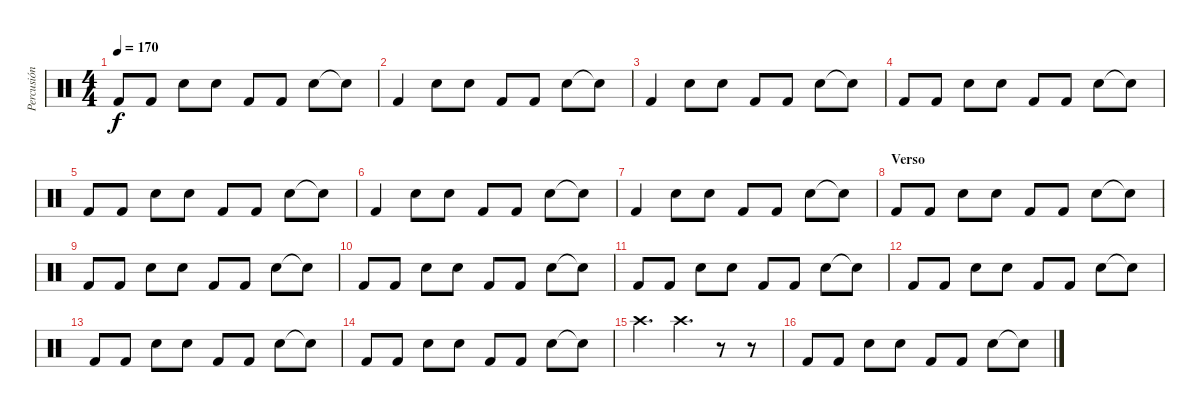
\track ("Percusión" "Percusión") {instrument percussion}
\staff {score}
\articulation defaults
\ts (4 4)
\tempo 170
\clef neutral
\ks c "Kick (hit) 2".8{dy f} "Kick (hit) 2".8 "Electric Snare (hit)".8 "Electric Snare (hit)".8 "Kick (hit) 2".8 "Kick (hit) 2".8 "Electric Snare (hit)".8 "Snare (hit)"{t}.8
|
"Kick (hit) 2".4 "Electric Snare (hit)".8 "Electric Snare (hit)".8 "Kick (hit) 2".8 "Kick (hit) 2".8 "Electric Snare (hit)".8 "Electric Snare (hit)"{t}.8 |
"Kick (hit) 2".4 "Electric Snare (hit)".8 "Electric Snare (hit)".8 "Kick (hit) 2".8 "Kick (hit) 2".8 "Electric Snare (hit)".8 "Electric Snare (hit)"{t}.8 |
"Kick (hit) 2".8 "Kick (hit) 2".8 "Electric Snare (hit)".8 "Electric Snare (hit)".8 "Kick (hit) 2".8 "Kick (hit) 2".8 "Electric Snare (hit)".8 "Snare (hit)"{t}.8 |
"Kick (hit) 2".8 "Kick (hit) 2".8 "Electric Snare (hit)".8 "Electric Snare (hit)".8 "Kick (hit) 2".8 "Kick (hit) 2".8 "Electric Snare (hit)".8 "Snare (hit)"{t}.8 |
"Kick (hit) 2".4 "Electric Snare (hit)".8 "Electric Snare (hit)".8 "Kick (hit) 2".8 "Kick (hit) 2".8 "Electric Snare (hit)".8 "Electric Snare (hit)"{t}.8 |
"Kick (hit) 2".4 "Electric Snare (hit)".8 "Electric Snare (hit)".8 "Kick (hit) 2".8 "Kick (hit) 2".8 "Electric Snare (hit)".8 "Electric Snare (hit)"{t}.8 |
\section ("" "Verso")
"Kick (hit) 2".8 "Kick (hit) 2".8 "Electric Snare (hit)".8 "Electric Snare (hit)".8 "Kick (hit) 2".8 "Kick (hit) 2".8 "Electric Snare (hit)".8 "Snare (hit)"{t}.8 |
"Kick (hit) 2".8 "Kick (hit) 2".8 "Electric Snare (hit)".8 "Electric Snare (hit)".8 "Kick (hit) 2".8 "Kick (hit) 2".8 "Electric Snare (hit)".8 "Snare (hit)"{t}.8 |
"Kick (hit) 2".8 "Kick (hit) 2".8 "Electric Snare (hit)".8 "Electric Snare (hit)".8 "Kick (hit) 2".8 "Kick (hit) 2".8 "Electric Snare (hit)".8 "Snare (hit)"{t}.8 |
"Kick (hit) 2".8 "Kick (hit) 2".8 "Electric Snare (hit)".8 "Electric Snare (hit)".8 "Kick (hit) 2".8 "Kick (hit) 2".8 "Electric Snare (hit)".8 "Snare (hit)"{t}.8 |
"Kick (hit) 2".8 "Kick (hit) 2".8 "Electric Snare (hit)".8 "Electric Snare (hit)".8 "Kick (hit) 2".8 "Kick (hit) 2".8 "Electric Snare (hit)".8 "Snare (hit)"{t}.8 |
"Kick (hit) 2".8 "Kick (hit) 2".8 "Electric Snare (hit)".8 "Electric Snare (hit)".8 "Kick (hit) 2".8 "Kick (hit) 2".8 "Electric Snare (hit)".8 "Snare (hit)"{t}.8 |
"Kick (hit) 2".8 "Kick (hit) 2".8 "Electric Snare (hit)".8 "Electric Snare (hit)".8 "Kick (hit) 2".8 "Kick (hit) 2".8 "Electric Snare (hit)".8 "Snare (hit)"{t}.8 |
"Crash high (hit)".4{d} "Crash high (hit)".4{d} r.8 r.8 |
"Kick (hit) 2".8 "Kick (hit) 2".8 "Electric Snare (hit)".8 "Electric Snare (hit)".8 "Kick (hit) 2".8 "Kick (hit) 2".8 "Electric Snare (hit)".8 "Snare (hit)"{t}.8
